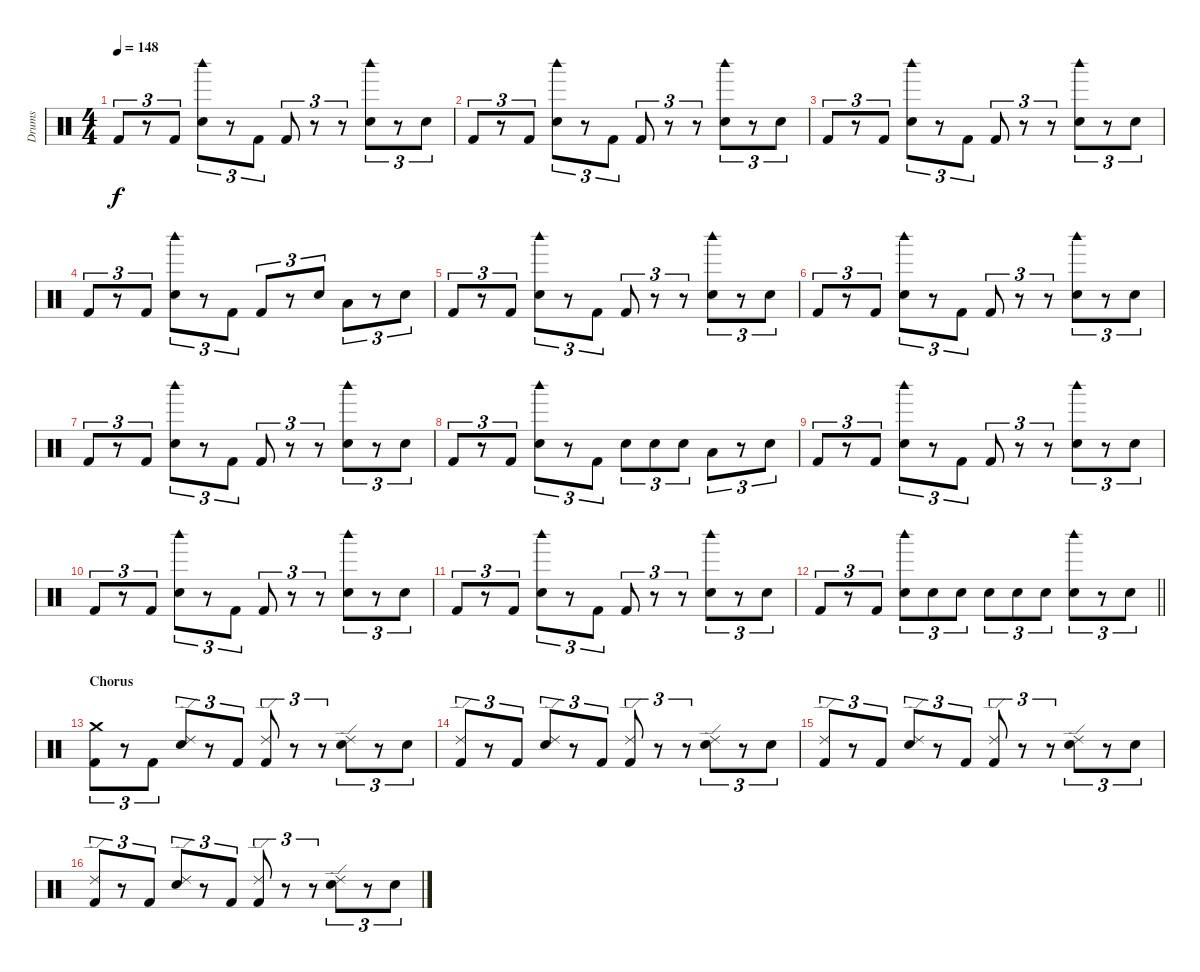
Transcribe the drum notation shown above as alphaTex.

\track ("Drums" "Drums") {instrument percussion}
\staff {score}
\articulation defaults
\ts (4 4)
\tempo 148
\clef neutral
\ks c "Kick (hit) 2".8{tu (3 2) dy f}
r.8{tu (3 2)} "Kick (hit) 2".8{tu (3 2)} ("Woodblock high (hit)" "Snare (hit) 2").8{tu (3 2)} r.8{tu (3 2)} "Kick (hit) 2".8{tu (3 2)} "Kick (hit) 2".8{tu (3 2)} r.8{tu (3 2)} r.8{tu (3 2)} ("Woodblock high (hit)" "Snare (hit) 2").8{tu (3 2)} r.8{tu (3 2)} "Snare (hit) 2".8{tu (3 2)} |
"Kick (hit) 2".8{tu (3 2)} r.8{tu (3 2)} "Kick (hit) 2".8{tu (3 2)} ("Woodblock high (hit)" "Snare (hit) 2").8{tu (3 2)} r.8{tu (3 2)} "Kick (hit) 2".8{tu (3 2)} "Kick (hit) 2".8{tu (3 2)} r.8{tu (3 2)} r.8{tu (3 2)} ("Woodblock high (hit)" "Snare (hit) 2").8{tu (3 2)} r.8{tu (3 2)} "Snare (hit) 2".8{tu (3 2)} |
"Kick (hit) 2".8{tu (3 2)} r.8{tu (3 2)} "Kick (hit) 2".8{tu (3 2)} ("Woodblock high (hit)" "Snare (hit) 2").8{tu (3 2)} r.8{tu (3 2)} "Kick (hit) 2".8{tu (3 2)} "Kick (hit) 2".8{tu (3 2)} r.8{tu (3 2)} r.8{tu (3 2)} ("Woodblock high (hit)" "Snare (hit) 2").8{tu (3 2)} r.8{tu (3 2)} "Snare (hit) 2".8{tu (3 2)} |
"Kick (hit) 2".8{tu (3 2)} r.8{tu (3 2)} "Kick (hit) 2".8{tu (3 2)} ("Woodblock high (hit)" "Snare (hit) 2").8{tu (3 2)} r.8{tu (3 2)} "Kick (hit) 2".8{tu (3 2)} "Kick (hit) 2".8{tu (3 2)} r.8{tu (3 2)} "Snare (hit) 2".8{tu (3 2)} "Low Tom (hit)".8{tu (3 2)} r.8{tu (3 2)} "Snare (hit) 2".8{tu (3 2)} |
"Kick (hit) 2".8{tu (3 2)} r.8{tu (3 2)} "Kick (hit) 2".8{tu (3 2)} ("Woodblock high (hit)" "Snare (hit) 2").8{tu (3 2)} r.8{tu (3 2)} "Kick (hit) 2".8{tu (3 2)} "Kick (hit) 2".8{tu (3 2)} r.8{tu (3 2)} r.8{tu (3 2)} ("Woodblock high (hit)" "Snare (hit) 2").8{tu (3 2)} r.8{tu (3 2)} "Snare (hit) 2".8{tu (3 2)} |
"Kick (hit) 2".8{tu (3 2)} r.8{tu (3 2)} "Kick (hit) 2".8{tu (3 2)} ("Woodblock high (hit)" "Snare (hit) 2").8{tu (3 2)} r.8{tu (3 2)} "Kick (hit) 2".8{tu (3 2)} "Kick (hit) 2".8{tu (3 2)} r.8{tu (3 2)} r.8{tu (3 2)} ("Woodblock high (hit)" "Snare (hit) 2").8{tu (3 2)} r.8{tu (3 2)} "Snare (hit) 2".8{tu (3 2)} |
"Kick (hit) 2".8{tu (3 2)} r.8{tu (3 2)} "Kick (hit) 2".8{tu (3 2)} ("Woodblock high (hit)" "Snare (hit) 2").8{tu (3 2)} r.8{tu (3 2)} "Kick (hit) 2".8{tu (3 2)} "Kick (hit) 2".8{tu (3 2)} r.8{tu (3 2)} r.8{tu (3 2)} ("Woodblock high (hit)" "Snare (hit) 2").8{tu (3 2)} r.8{tu (3 2)} "Snare (hit) 2".8{tu (3 2)} |
"Kick (hit) 2".8{tu (3 2)} r.8{tu (3 2)} "Kick (hit) 2".8{tu (3 2)} ("Woodblock high (hit)" "Snare (hit) 2").8{tu (3 2)} r.8{tu (3 2)} "Kick (hit) 2".8{tu (3 2)} "Snare (hit) 2".8{tu (3 2)} "Snare (hit) 2".8{tu (3 2)} "Snare (hit) 2".8{tu (3 2)} "Low Tom (hit)".8{tu (3 2)} r.8{tu (3 2)} "Snare (hit) 2".8{tu (3 2)} |
"Kick (hit) 2".8{tu (3 2)} r.8{tu (3 2)} "Kick (hit) 2".8{tu (3 2)} ("Woodblock high (hit)" "Snare (hit) 2").8{tu (3 2)} r.8{tu (3 2)} "Kick (hit) 2".8{tu (3 2)} "Kick (hit) 2".8{tu (3 2)} r.8{tu (3 2)} r.8{tu (3 2)} ("Woodblock high (hit)" "Snare (hit) 2").8{tu (3 2)} r.8{tu (3 2)} "Snare (hit) 2".8{tu (3 2)} |
"Kick (hit) 2".8{tu (3 2)} r.8{tu (3 2)} "Kick (hit) 2".8{tu (3 2)} ("Woodblock high (hit)" "Snare (hit) 2").8{tu (3 2)} r.8{tu (3 2)} "Kick (hit) 2".8{tu (3 2)} "Kick (hit) 2".8{tu (3 2)} r.8{tu (3 2)} r.8{tu (3 2)} ("Woodblock high (hit)" "Snare (hit) 2").8{tu (3 2)} r.8{tu (3 2)} "Snare (hit) 2".8{tu (3 2)} |
"Kick (hit) 2".8{tu (3 2)} r.8{tu (3 2)} "Kick (hit) 2".8{tu (3 2)} ("Woodblock high (hit)" "Snare (hit) 2").8{tu (3 2)} r.8{tu (3 2)} "Kick (hit) 2".8{tu (3 2)} "Kick (hit) 2".8{tu (3 2)} r.8{tu (3 2)} r.8{tu (3 2)} ("Woodblock high (hit)" "Snare (hit) 2").8{tu (3 2)} r.8{tu (3 2)} "Snare (hit) 2".8{tu (3 2)} |
\barLineRight lightlight "Kick (hit) 2".8{tu (3 2)}
r.8{tu (3 2)} "Kick (hit) 2".8{tu (3 2)} ("Woodblock high (hit)" "Snare (hit) 2").8{tu (3 2)} "Snare (hit) 2".8{tu (3 2)} "Snare (hit) 2".8{tu (3 2)} "Snare (hit) 2".8{tu (3 2)} "Snare (hit) 2".8{tu (3 2)} "Snare (hit) 2".8{tu (3 2)} ("Woodblock high (hit)" "Snare (hit) 2").8{tu (3 2)} r.8{tu (3 2)} "Snare (hit) 2".8{tu (3 2)} |
\section ("" "Chorus")
("Crash medium (hit)" "Kick (hit) 2").8{tu (3 2)} r.8{tu (3 2)} "Kick (hit) 2".8{tu (3 2)} ("Ride (edge) 2" "Snare (hit) 2").8{tu (3 2)} r.8{tu (3 2)} "Kick (hit) 2".8{tu (3 2)} ("Ride (edge) 2" "Kick (hit) 2").8{tu (3 2)} r.8{tu (3 2)} r.8{tu (3 2)} ("Ride (edge) 2" "Snare (hit) 2").8{tu (3 2)} r.8{tu (3 2)} "Snare (hit) 2".8{tu (3 2)} |
("Ride (edge) 2" "Kick (hit) 2").8{tu (3 2)} r.8{tu (3 2)} "Kick (hit) 2".8{tu (3 2)} ("Ride (edge) 2" "Snare (hit) 2").8{tu (3 2)} r.8{tu (3 2)} "Kick (hit) 2".8{tu (3 2)} ("Ride (edge) 2" "Kick (hit) 2").8{tu (3 2)} r.8{tu (3 2)} r.8{tu (3 2)} ("Ride (edge) 2" "Snare (hit) 2").8{tu (3 2)} r.8{tu (3 2)} "Snare (hit) 2".8{tu (3 2)} |
("Ride (edge) 2" "Kick (hit) 2").8{tu (3 2)} r.8{tu (3 2)} "Kick (hit) 2".8{tu (3 2)} ("Ride (edge) 2" "Snare (hit) 2").8{tu (3 2)} r.8{tu (3 2)} "Kick (hit) 2".8{tu (3 2)} ("Ride (edge) 2" "Kick (hit) 2").8{tu (3 2)} r.8{tu (3 2)} r.8{tu (3 2)} ("Ride (edge) 2" "Snare (hit) 2").8{tu (3 2)} r.8{tu (3 2)} "Snare (hit) 2".8{tu (3 2)} |
("Ride (edge) 2" "Kick (hit) 2").8{tu (3 2)} r.8{tu (3 2)} "Kick (hit) 2".8{tu (3 2)} ("Ride (edge) 2" "Snare (hit) 2").8{tu (3 2)} r.8{tu (3 2)} "Kick (hit) 2".8{tu (3 2)} ("Ride (edge) 2" "Kick (hit) 2").8{tu (3 2)} r.8{tu (3 2)} r.8{tu (3 2)} ("Ride (edge) 2" "Snare (hit) 2").8{tu (3 2)} r.8{tu (3 2)} "Snare (hit) 2".8{tu (3 2)}
